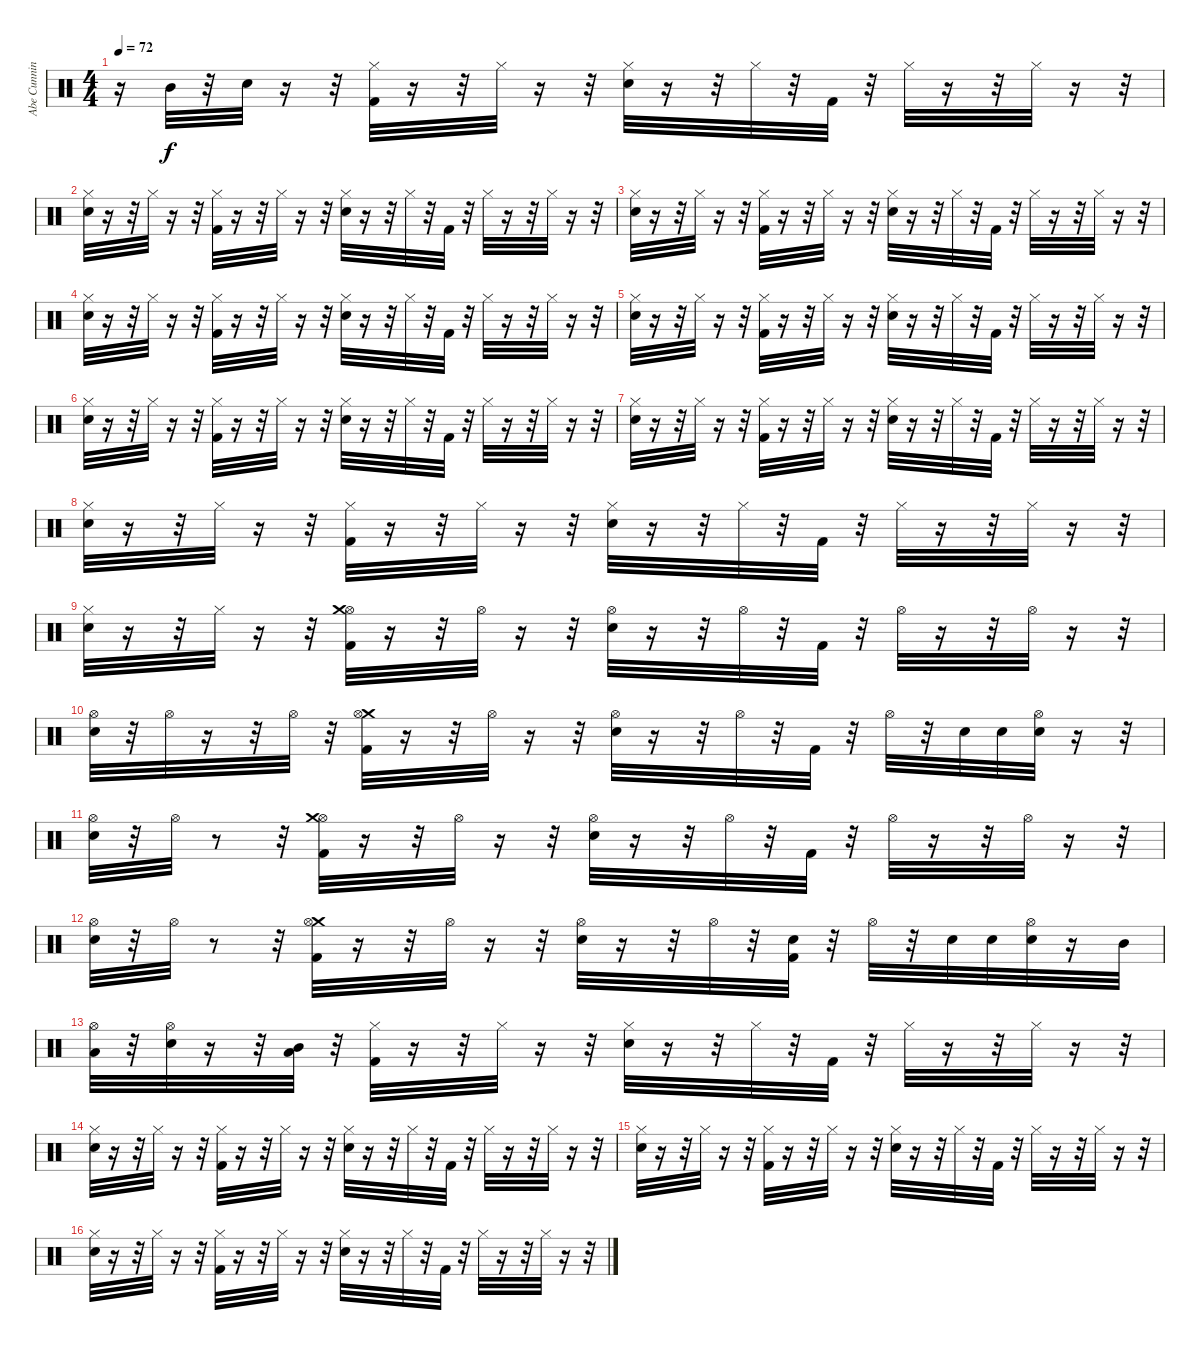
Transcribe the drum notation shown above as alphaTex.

\track ("Abe Cunningham [drums]" "Abe Cunnin") {instrument percussion}
\staff {score}
\articulation defaults
\ts (4 4)
\tempo 72
\clef neutral
\ks c
r.16{dy f} "Mid Tom (hit)".32 r.32 "Electric Snare (hit)".32 r.16 r.32 ("Hi-Hat (closed)" "Kick (hit) 2").32 r.16 r.32 "Hi-Hat (closed)".32 r.16 r.32 ("Hi-Hat (closed)" "Electric Snare (hit)").32 r.16 r.32 "Hi-Hat (closed)".32 r.32 "Kick (hit) 2".32 r.32 "Hi-Hat (closed)".32 r.16 r.32 "Hi-Hat (closed)".32 r.16 r.32 |
("Hi-Hat (closed)" "Electric Snare (hit)").32 r.16 r.32 "Hi-Hat (closed)".32 r.16 r.32 ("Hi-Hat (closed)" "Kick (hit) 2").32 r.16 r.32 "Hi-Hat (closed)".32 r.16 r.32 ("Hi-Hat (closed)" "Electric Snare (hit)").32 r.16 r.32 "Hi-Hat (closed)".32 r.32 "Kick (hit) 2".32 r.32 "Hi-Hat (closed)".32 r.16 r.32 "Hi-Hat (closed)".32 r.16 r.32 |
("Hi-Hat (closed)" "Electric Snare (hit)").32 r.16 r.32 "Hi-Hat (closed)".32 r.16 r.32 ("Hi-Hat (closed)" "Kick (hit) 2").32 r.16 r.32 "Hi-Hat (closed)".32 r.16 r.32 ("Hi-Hat (closed)" "Electric Snare (hit)").32 r.16 r.32 "Hi-Hat (closed)".32 r.32 "Kick (hit) 2".32 r.32 "Hi-Hat (closed)".32 r.16 r.32 "Hi-Hat (closed)".32 r.16 r.32 |
("Hi-Hat (closed)" "Electric Snare (hit)").32 r.16 r.32 "Hi-Hat (closed)".32 r.16 r.32 ("Hi-Hat (closed)" "Kick (hit) 2").32 r.16 r.32 "Hi-Hat (closed)".32 r.16 r.32 ("Hi-Hat (closed)" "Electric Snare (hit)").32 r.16 r.32 "Hi-Hat (closed)".32 r.32 "Kick (hit) 2".32 r.32 "Hi-Hat (closed)".32 r.16 r.32 "Hi-Hat (closed)".32 r.16 r.32 |
("Hi-Hat (closed)" "Electric Snare (hit)").32 r.16 r.32 "Hi-Hat (closed)".32 r.16 r.32 ("Hi-Hat (closed)" "Kick (hit) 2").32 r.16 r.32 "Hi-Hat (closed)".32 r.16 r.32 ("Hi-Hat (closed)" "Electric Snare (hit)").32 r.16 r.32 "Hi-Hat (closed)".32 r.32 "Kick (hit) 2".32 r.32 "Hi-Hat (closed)".32 r.16 r.32 "Hi-Hat (closed)".32 r.16 r.32 |
("Hi-Hat (closed)" "Electric Snare (hit)").32 r.16 r.32 "Hi-Hat (closed)".32 r.16 r.32 ("Hi-Hat (closed)" "Kick (hit) 2").32 r.16 r.32 "Hi-Hat (closed)".32 r.16 r.32 ("Hi-Hat (closed)" "Electric Snare (hit)").32 r.16 r.32 "Hi-Hat (closed)".32 r.32 "Kick (hit) 2".32 r.32 "Hi-Hat (closed)".32 r.16 r.32 "Hi-Hat (closed)".32 r.16 r.32 |
("Hi-Hat (closed)" "Electric Snare (hit)").32 r.16 r.32 "Hi-Hat (closed)".32 r.16 r.32 ("Hi-Hat (closed)" "Kick (hit) 2").32 r.16 r.32 "Hi-Hat (closed)".32 r.16 r.32 ("Hi-Hat (closed)" "Electric Snare (hit)").32 r.16 r.32 "Hi-Hat (closed)".32 r.32 "Kick (hit) 2".32 r.32 "Hi-Hat (closed)".32 r.16 r.32 "Hi-Hat (closed)".32 r.16 r.32 |
("Hi-Hat (closed)" "Electric Snare (hit)").32 r.16 r.32 "Hi-Hat (closed)".32 r.16 r.32 ("Hi-Hat (closed)" "Kick (hit) 2").32 r.16 r.32 "Hi-Hat (closed)".32 r.16 r.32 ("Hi-Hat (closed)" "Electric Snare (hit)").32 r.16 r.32 "Hi-Hat (closed)".32 r.32 "Kick (hit) 2".32 r.32 "Hi-Hat (closed)".32 r.16 r.32 "Hi-Hat (closed)".32 r.16 r.32 |
("Hi-Hat (closed)" "Electric Snare (hit)").32 r.16 r.32 "Hi-Hat (closed)".32 r.16 r.32 ("Hi-Hat (open)" "Crash medium (hit)" "Kick (hit) 2").32 r.16 r.32 "Hi-Hat (open)".32 r.16 r.32 ("Hi-Hat (open)" "Electric Snare (hit)").32 r.16 r.32 "Hi-Hat (open)".32 r.32 "Kick (hit) 2".32 r.32 "Hi-Hat (open)".32 r.16 r.32 "Hi-Hat (open)".32 r.16 r.32 |
("Hi-Hat (open)" "Electric Snare (hit)").32 r.32 "Hi-Hat (open)".32 r.16 r.32 "Hi-Hat (open)".32 r.32 ("Crash medium (hit)" "Hi-Hat (open)" "Kick (hit) 2").32 r.16 r.32 "Hi-Hat (open)".32 r.16 r.32 ("Hi-Hat (open)" "Electric Snare (hit)").32 r.16 r.32 "Hi-Hat (open)".32 r.32 "Kick (hit) 2".32 r.32 "Hi-Hat (open)".32 r.32 "Electric Snare (hit)".32 "Electric Snare (hit)".32 ("Hi-Hat (open)" "Electric Snare (hit)").32 r.16 r.32 |
("Hi-Hat (open)" "Electric Snare (hit)").32 r.32 "Hi-Hat (open)".32 r.8 r.32 ("Hi-Hat (open)" "Crash medium (hit)" "Kick (hit) 2").32 r.16 r.32 "Hi-Hat (open)".32 r.16 r.32 ("Hi-Hat (open)" "Electric Snare (hit)").32 r.16 r.32 "Hi-Hat (open)".32 r.32 "Kick (hit) 2".32 r.32 "Hi-Hat (open)".32 r.16 r.32 "Hi-Hat (open)".32 r.16 r.32 |
("Hi-Hat (open)" "Electric Snare (hit)").32 r.32 "Hi-Hat (open)".32 r.8 r.32 ("Crash medium (hit)" "Hi-Hat (open)" "Kick (hit) 2").32 r.16 r.32 "Hi-Hat (open)".32 r.16 r.32 ("Hi-Hat (open)" "Electric Snare (hit)").32 r.16 r.32 "Hi-Hat (open)".32 r.32 ("Electric Snare (hit)" "Kick (hit) 2").32 r.32 "Hi-Hat (open)".32 r.32 "Electric Snare (hit)".32 "Electric Snare (hit)".32 ("Hi-Hat (open)" "Electric Snare (hit)").32 r.16 "Mid Tom (hit)".32 |
("Hi-Hat (open)" "Low Tom (hit)").32 r.32 ("Hi-Hat (open)" "Electric Snare (hit)").32 r.16 r.32 ("Mid Tom (hit)" "Low Tom (hit)").32 r.32 ("Hi-Hat (closed)" "Kick (hit) 2").32 r.16 r.32 "Hi-Hat (closed)".32 r.16 r.32 ("Hi-Hat (closed)" "Electric Snare (hit)").32 r.16 r.32 "Hi-Hat (closed)".32 r.32 "Kick (hit) 2".32 r.32 "Hi-Hat (closed)".32 r.16 r.32 "Hi-Hat (closed)".32 r.16 r.32 |
("Hi-Hat (closed)" "Electric Snare (hit)").32 r.16 r.32 "Hi-Hat (closed)".32 r.16 r.32 ("Hi-Hat (closed)" "Kick (hit) 2").32 r.16 r.32 "Hi-Hat (closed)".32 r.16 r.32 ("Hi-Hat (closed)" "Electric Snare (hit)").32 r.16 r.32 "Hi-Hat (closed)".32 r.32 "Kick (hit) 2".32 r.32 "Hi-Hat (closed)".32 r.16 r.32 "Hi-Hat (closed)".32 r.16 r.32 |
("Hi-Hat (closed)" "Electric Snare (hit)").32 r.16 r.32 "Hi-Hat (closed)".32 r.16 r.32 ("Hi-Hat (closed)" "Kick (hit) 2").32 r.16 r.32 "Hi-Hat (closed)".32 r.16 r.32 ("Hi-Hat (closed)" "Electric Snare (hit)").32 r.16 r.32 "Hi-Hat (closed)".32 r.32 "Kick (hit) 2".32 r.32 "Hi-Hat (closed)".32 r.16 r.32 "Hi-Hat (closed)".32 r.16 r.32 |
("Hi-Hat (closed)" "Electric Snare (hit)").32 r.16 r.32 "Hi-Hat (closed)".32 r.16 r.32 ("Hi-Hat (closed)" "Kick (hit) 2").32 r.16 r.32 "Hi-Hat (closed)".32 r.16 r.32 ("Hi-Hat (closed)" "Electric Snare (hit)").32 r.16 r.32 "Hi-Hat (closed)".32 r.32 "Kick (hit) 2".32 r.32 "Hi-Hat (closed)".32 r.16 r.32 "Hi-Hat (closed)".32 r.16 r.32
